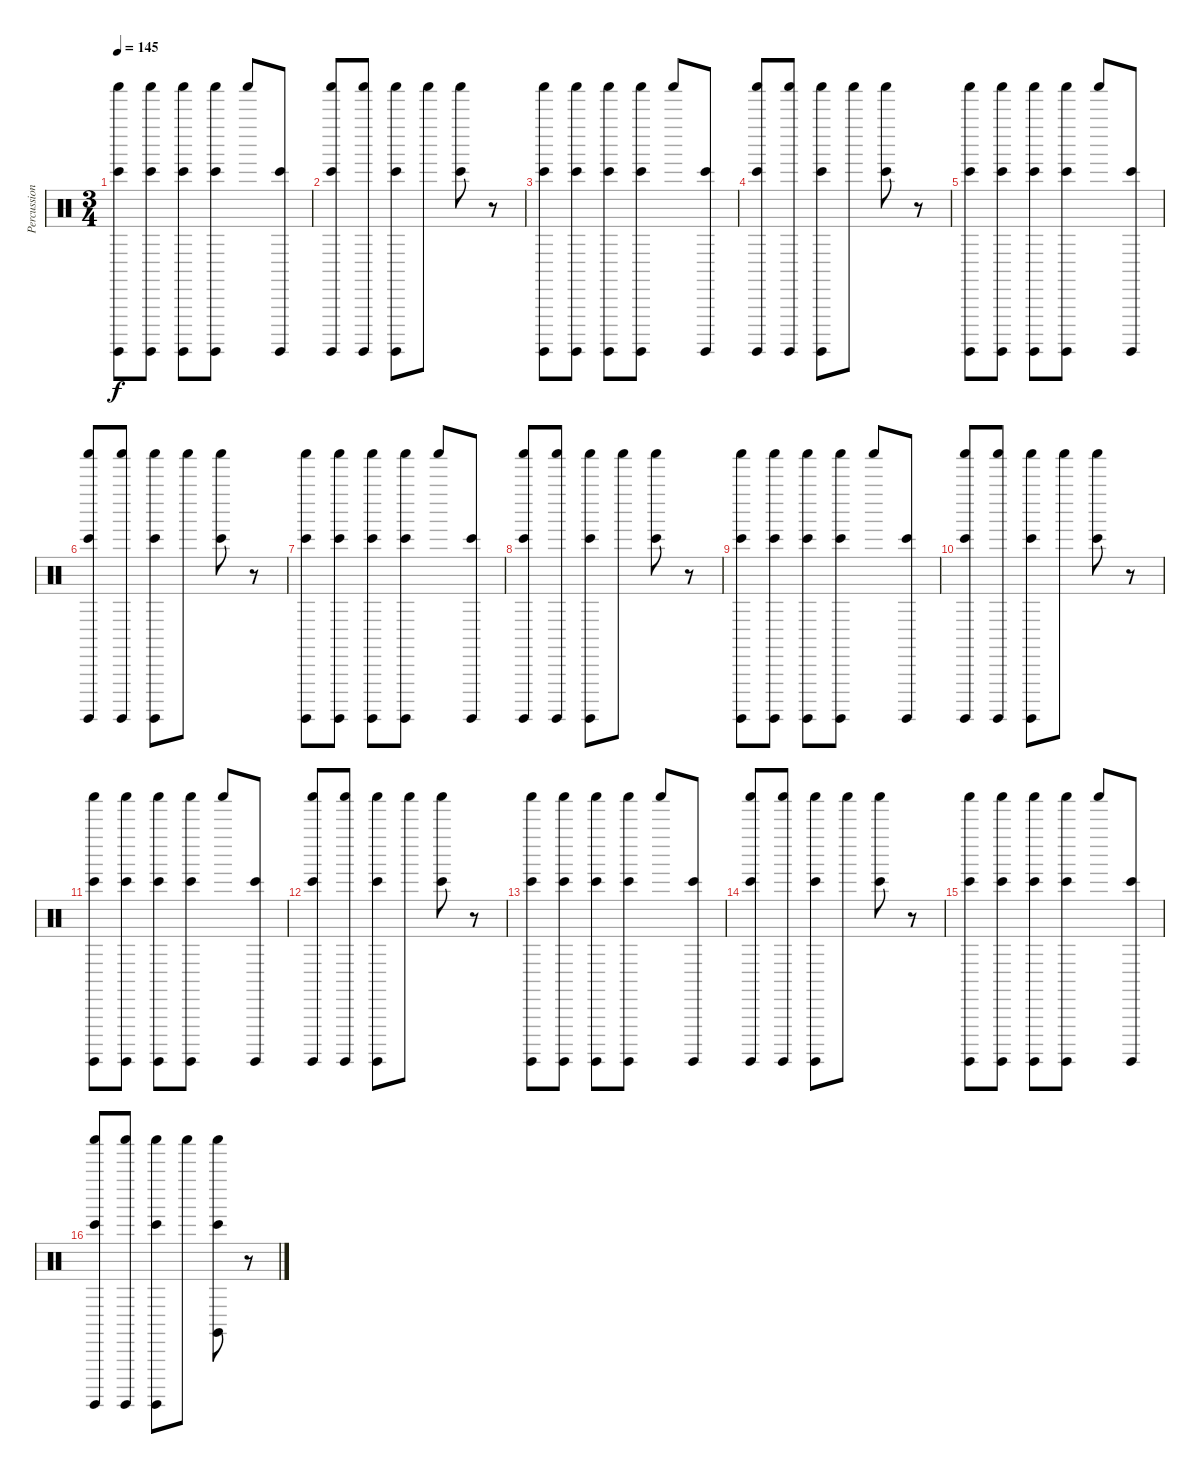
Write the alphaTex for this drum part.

\track ("Percussion" "Percussion") {instrument percussion}
\staff {score}
\articulation defaults
\ts (3 4)
\tempo 145
\clef neutral
\ks c
("Shaker (hit)" "Surdo (hit)" "Bongo High (hit)").8{dy f} ("Shaker (hit)" "Surdo (hit)" "Bongo High (hit)").8 ("Shaker (hit)" "Surdo (hit)" "Bongo High (hit)").8 ("Shaker (hit)" "Surdo (hit)" "Bongo High (hit)").8 "Shaker (hit)".8 ("Surdo (hit)" "Bongo High (hit)").8 |
("Shaker (hit)" "Surdo (hit)" "Bongo High (hit)").8 ("Shaker (hit)" "Surdo (hit)").8 ("Shaker (hit)" "Surdo (hit)" "Bongo High (hit)").8 "Shaker (hit)".8 ("Shaker (hit)" "Bongo High (hit)").8 r.8 |
("Shaker (hit)" "Surdo (hit)" "Bongo High (hit)").8 ("Shaker (hit)" "Surdo (hit)" "Bongo High (hit)").8 ("Shaker (hit)" "Surdo (hit)" "Bongo High (hit)").8 ("Shaker (hit)" "Surdo (hit)" "Bongo High (hit)").8 "Shaker (hit)".8 ("Surdo (hit)" "Bongo High (hit)").8 |
("Shaker (hit)" "Surdo (hit)" "Bongo High (hit)").8 ("Shaker (hit)" "Surdo (hit)").8 ("Shaker (hit)" "Surdo (hit)" "Bongo High (hit)").8 "Shaker (hit)".8 ("Shaker (hit)" "Bongo High (hit)").8 r.8 |
("Shaker (hit)" "Surdo (hit)" "Bongo High (hit)").8 ("Shaker (hit)" "Surdo (hit)" "Bongo High (hit)").8 ("Shaker (hit)" "Surdo (hit)" "Bongo High (hit)").8 ("Shaker (hit)" "Surdo (hit)" "Bongo High (hit)").8 "Shaker (hit)".8 ("Surdo (hit)" "Bongo High (hit)").8 |
("Shaker (hit)" "Surdo (hit)" "Bongo High (hit)").8 ("Shaker (hit)" "Surdo (hit)").8 ("Shaker (hit)" "Surdo (hit)" "Bongo High (hit)").8 "Shaker (hit)".8 ("Shaker (hit)" "Bongo High (hit)").8 r.8 |
("Shaker (hit)" "Surdo (hit)" "Bongo High (hit)").8 ("Shaker (hit)" "Surdo (hit)" "Bongo High (hit)").8 ("Shaker (hit)" "Surdo (hit)" "Bongo High (hit)").8 ("Shaker (hit)" "Surdo (hit)" "Bongo High (hit)").8 "Shaker (hit)".8 ("Surdo (hit)" "Bongo High (hit)").8 |
("Shaker (hit)" "Surdo (hit)" "Bongo High (hit)").8 ("Shaker (hit)" "Surdo (hit)").8 ("Shaker (hit)" "Surdo (hit)" "Bongo High (hit)").8 "Shaker (hit)".8 ("Shaker (hit)" "Bongo High (hit)").8 r.8 |
("Shaker (hit)" "Surdo (hit)" "Bongo High (hit)").8 ("Shaker (hit)" "Surdo (hit)" "Bongo High (hit)").8 ("Shaker (hit)" "Surdo (hit)" "Bongo High (hit)").8 ("Shaker (hit)" "Surdo (hit)" "Bongo High (hit)").8 "Shaker (hit)".8 ("Surdo (hit)" "Bongo High (hit)").8 |
("Shaker (hit)" "Surdo (hit)" "Bongo High (hit)").8 ("Shaker (hit)" "Surdo (hit)").8 ("Shaker (hit)" "Surdo (hit)" "Bongo High (hit)").8 "Shaker (hit)".8 ("Shaker (hit)" "Bongo High (hit)").8 r.8 |
("Shaker (hit)" "Surdo (hit)" "Bongo High (hit)").8 ("Shaker (hit)" "Surdo (hit)" "Bongo High (hit)").8 ("Shaker (hit)" "Surdo (hit)" "Bongo High (hit)").8 ("Shaker (hit)" "Surdo (hit)" "Bongo High (hit)").8 "Shaker (hit)".8 ("Surdo (hit)" "Bongo High (hit)").8 |
("Shaker (hit)" "Surdo (hit)" "Bongo High (hit)").8 ("Shaker (hit)" "Surdo (hit)").8 ("Shaker (hit)" "Surdo (hit)" "Bongo High (hit)").8 "Shaker (hit)".8 ("Shaker (hit)" "Bongo High (hit)").8 r.8 |
("Shaker (hit)" "Surdo (hit)" "Bongo High (hit)").8 ("Shaker (hit)" "Surdo (hit)" "Bongo High (hit)").8 ("Shaker (hit)" "Surdo (hit)" "Bongo High (hit)").8 ("Shaker (hit)" "Surdo (hit)" "Bongo High (hit)").8 "Shaker (hit)".8 ("Surdo (hit)" "Bongo High (hit)").8 |
("Shaker (hit)" "Surdo (hit)" "Bongo High (hit)").8 ("Shaker (hit)" "Surdo (hit)").8 ("Shaker (hit)" "Surdo (hit)" "Bongo High (hit)").8 "Shaker (hit)".8 ("Shaker (hit)" "Bongo High (hit)").8 r.8 |
("Shaker (hit)" "Surdo (hit)" "Bongo High (hit)").8 ("Shaker (hit)" "Surdo (hit)" "Bongo High (hit)").8 ("Shaker (hit)" "Surdo (hit)" "Bongo High (hit)").8 ("Shaker (hit)" "Surdo (hit)" "Bongo High (hit)").8 "Shaker (hit)".8 ("Surdo (hit)" "Bongo High (hit)").8 |
("Shaker (hit)" "Surdo (hit)" "Bongo High (hit)").8 ("Shaker (hit)" "Surdo (hit)").8 ("Shaker (hit)" "Surdo (hit)" "Bongo High (hit)").8 "Shaker (hit)".8 ("Shaker (hit)" "Bongo High (hit)" "Claves (hit)").8 r.8
